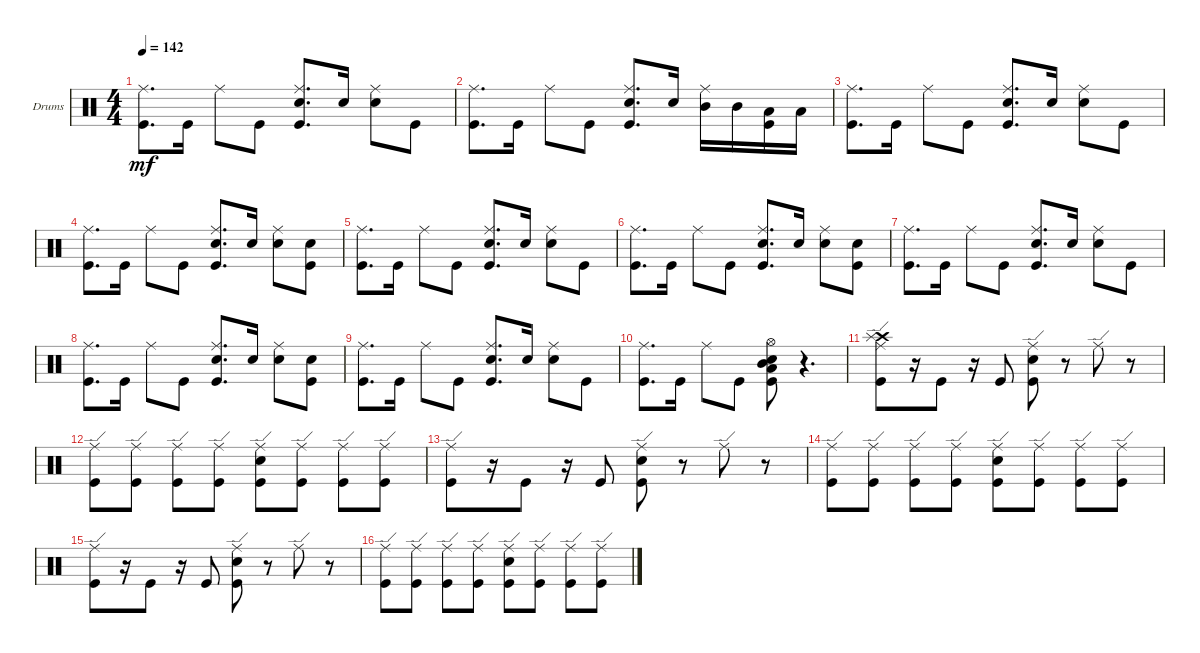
\bracketExtendMode groupsimilarinstruments
\firstSystemTrackNameOrientation horizontal
\otherSystemsTrackNameOrientation horizontal
\track ("Drumkit" "Drums") {instrument percussion}
\staff {score}
\articulation defaults
\ts (4 4)
\tempo 142
\clef neutral
\ks c
("Kick (hit)" "Ride (middle)").8{d dy mf} "Kick (hit)".16 "Ride (middle)".8 "Kick (hit)".8 ("Kick (hit)" "Snare (hit) 2" "Ride (middle)").8{d} "Snare (hit) 2".16 ("Snare (hit) 2" "Ride (middle)").8 "Kick (hit)".8 |
("Kick (hit)" "Ride (middle)").8{d} "Kick (hit)".16 "Ride (middle)".8 "Kick (hit)".8 ("Kick (hit)" "Snare (hit) 2" "Ride (middle)").8{d} "Snare (hit) 2".16 ("Ride (middle)" "Mid Tom (hit)").16 "Mid Tom (hit)".16 ("Low Tom (hit)" "Kick (hit)").16 "Low Tom (hit)".16 |
("Kick (hit)" "Ride (middle)").8{d} "Kick (hit)".16 "Ride (middle)".8 "Kick (hit)".8 ("Kick (hit)" "Snare (hit) 2" "Ride (middle)").8{d} "Snare (hit) 2".16 ("Snare (hit) 2" "Ride (middle)").8 "Kick (hit)".8 |
("Kick (hit)" "Ride (middle)").8{d} "Kick (hit)".16 "Ride (middle)".8 "Kick (hit)".8 ("Kick (hit)" "Snare (hit) 2" "Ride (middle)").8{d} "Snare (hit) 2".16 ("Snare (hit) 2" "Ride (middle)").8 ("Kick (hit)" "Snare (hit) 2").8 |
("Kick (hit)" "Ride (middle)").8{d} "Kick (hit)".16 "Ride (middle)".8 "Kick (hit)".8 ("Kick (hit)" "Snare (hit) 2" "Ride (middle)").8{d} "Snare (hit) 2".16 ("Snare (hit) 2" "Ride (middle)").8 "Kick (hit)".8 |
("Kick (hit)" "Ride (middle)").8{d} "Kick (hit)".16 "Ride (middle)".8 "Kick (hit)".8 ("Kick (hit)" "Snare (hit) 2" "Ride (middle)").8{d} "Snare (hit) 2".16 ("Snare (hit) 2" "Ride (middle)").8 ("Kick (hit)" "Snare (hit) 2").8 |
("Kick (hit)" "Ride (middle)").8{d} "Kick (hit)".16 "Ride (middle)".8 "Kick (hit)".8 ("Kick (hit)" "Snare (hit) 2" "Ride (middle)").8{d} "Snare (hit) 2".16 ("Snare (hit) 2" "Ride (middle)").8 "Kick (hit)".8 |
("Kick (hit)" "Ride (middle)").8{d} "Kick (hit)".16 "Ride (middle)".8 "Kick (hit)".8 ("Kick (hit)" "Snare (hit) 2" "Ride (middle)").8{d} "Snare (hit) 2".16 ("Snare (hit) 2" "Ride (middle)").8 ("Kick (hit)" "Snare (hit) 2").8 |
("Kick (hit)" "Ride (middle)").8{d} "Kick (hit)".16 "Ride (middle)".8 "Kick (hit)".8 ("Kick (hit)" "Snare (hit) 2" "Ride (middle)").8{d} "Snare (hit) 2".16 ("Snare (hit) 2" "Ride (middle)").8 "Kick (hit)".8 |
("Kick (hit)" "Ride (middle)").8{d} "Kick (hit)".16 "Ride (middle)".8 "Kick (hit)".8 ("Kick (hit)" "Snare (hit) 2" "Low Tom (hit)" "Mid Tom (hit)" "Hi-Hat (open)").8 r.4{d} |
("Kick (hit)" "Crash high (hit)" "Splash (hit)" "Ride (edge)").8 r.16 "Kick (hit)".8 r.16 "Kick (hit)".8 ("Kick (hit)" "Snare (hit) 2" "Ride (edge)").8 r.8 "Ride (edge)".8 r.8 |
("Kick (hit)" "Ride (edge)").8 ("Kick (hit)" "Ride (edge)").8 ("Kick (hit)" "Ride (edge)").8 ("Kick (hit)" "Ride (edge)").8 ("Kick (hit)" "Ride (edge)" "Snare (hit) 2").8 ("Kick (hit)" "Ride (edge)").8 ("Kick (hit)" "Ride (edge)").8 ("Kick (hit)" "Ride (edge)").8 |
("Kick (hit)" "Ride (edge)").8 r.16 "Kick (hit)".8 r.16 "Kick (hit)".8 ("Kick (hit)" "Snare (hit) 2" "Ride (edge)").8 r.8 "Ride (edge)".8 r.8 |
("Kick (hit)" "Ride (edge)").8 ("Kick (hit)" "Ride (edge)").8 ("Kick (hit)" "Ride (edge)").8 ("Kick (hit)" "Ride (edge)").8 ("Kick (hit)" "Ride (edge)" "Snare (hit) 2").8 ("Kick (hit)" "Ride (edge)").8 ("Kick (hit)" "Ride (edge)").8 ("Kick (hit)" "Ride (edge)").8 |
("Kick (hit)" "Ride (edge)").8 r.16 "Kick (hit)".8 r.16 "Kick (hit)".8 ("Kick (hit)" "Snare (hit) 2" "Ride (edge)").8 r.8 "Ride (edge)".8 r.8 |
("Kick (hit)" "Ride (edge)").8 ("Kick (hit)" "Ride (edge)").8 ("Kick (hit)" "Ride (edge)").8 ("Kick (hit)" "Ride (edge)").8 ("Kick (hit)" "Ride (edge)" "Snare (hit) 2").8 ("Kick (hit)" "Ride (edge)").8 ("Kick (hit)" "Ride (edge)").8 ("Kick (hit)" "Ride (edge)").8
